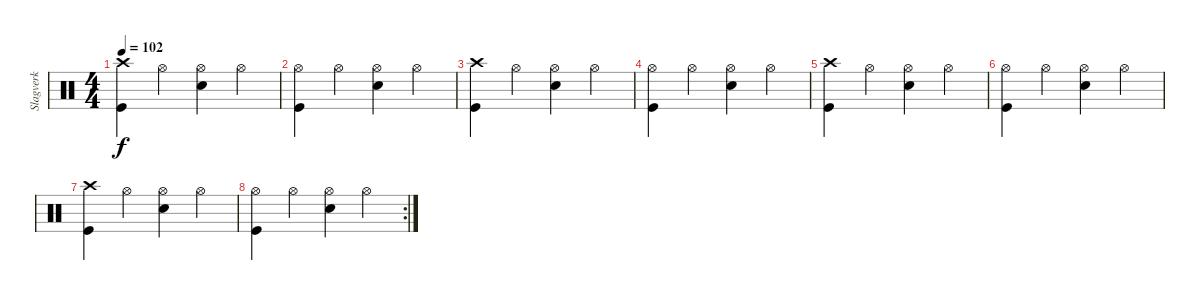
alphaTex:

\track ("Slagverk" "Slagverk") {instrument percussion}
\staff {score}
\articulation defaults
\ts (4 4)
\tempo 102
\clef neutral
\ks c
("Crash high (hit)" "Kick (hit)").4{dy f} "Hi-Hat (open)".4 ("Hi-Hat (open)" "Snare (hit) 2").4 "Hi-Hat (open)".4 |
("Hi-Hat (open)" "Kick (hit)").4 "Hi-Hat (open)".4 ("Hi-Hat (open)" "Snare (hit) 2").4 "Hi-Hat (open)".4 |
("Crash high (hit)" "Kick (hit)").4 "Hi-Hat (open)".4 ("Hi-Hat (open)" "Snare (hit) 2").4 "Hi-Hat (open)".4 |
("Hi-Hat (open)" "Kick (hit)").4 "Hi-Hat (open)".4 ("Hi-Hat (open)" "Snare (hit) 2").4 "Hi-Hat (open)".4 |
("Crash high (hit)" "Kick (hit)").4 "Hi-Hat (open)".4 ("Hi-Hat (open)" "Snare (hit) 2").4 "Hi-Hat (open)".4 |
("Hi-Hat (open)" "Kick (hit)").4 "Hi-Hat (open)".4 ("Hi-Hat (open)" "Snare (hit) 2").4 "Hi-Hat (open)".4 |
("Crash high (hit)" "Kick (hit)").4 "Hi-Hat (open)".4 ("Hi-Hat (open)" "Snare (hit) 2").4 "Hi-Hat (open)".4 |
\rc 2
("Hi-Hat (open)" "Kick (hit)").4 "Hi-Hat (open)".4 ("Hi-Hat (open)" "Snare (hit) 2").4 "Hi-Hat (open)".4
